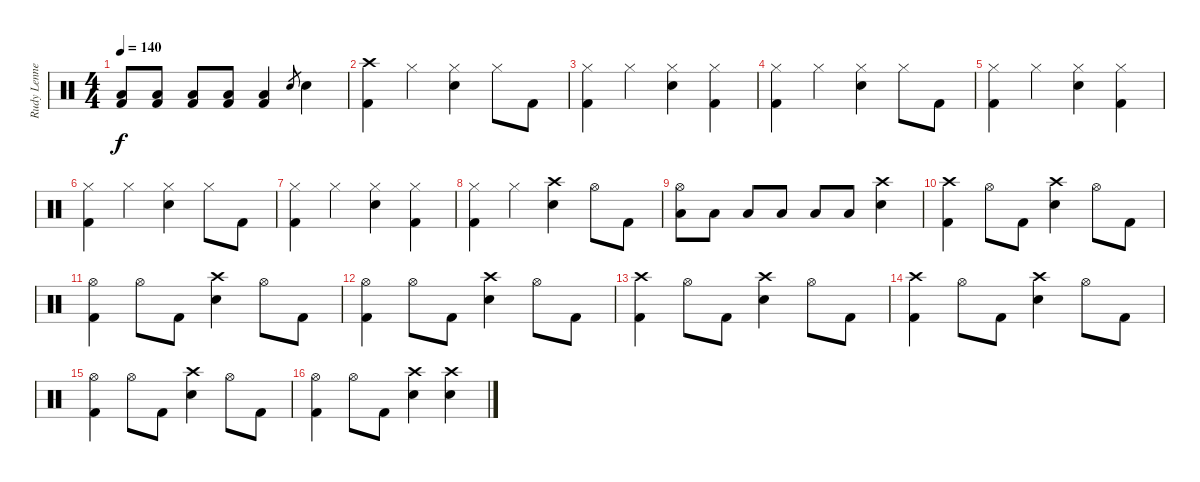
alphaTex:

\track ("Rudy Lenners" "Rudy Lenne") {instrument percussion}
\staff {score}
\articulation defaults
\ts (4 4)
\tempo 140
\clef neutral
\ks c
("Low Tom (hit)" "Kick (hit) 2").8{dy f} ("Low Tom (hit)" "Kick (hit) 2").8 ("Low Tom (hit)" "Kick (hit) 2").8 ("Low Tom (hit)" "Kick (hit) 2").8 ("Low Tom (hit)" "Kick (hit) 2").4 "Snare (hit) 2".8{gr} "Snare (hit) 2".4 |
("Crash high (hit)" "Kick (hit) 2").4 "Hi-Hat (closed)".4 ("Hi-Hat (closed)" "Snare (hit) 2").4 "Hi-Hat (closed)".8 "Kick (hit) 2".8 |
("Hi-Hat (closed)" "Kick (hit) 2").4 "Hi-Hat (closed)".4 ("Hi-Hat (closed)" "Snare (hit) 2").4 ("Hi-Hat (closed)" "Kick (hit) 2").4 |
("Hi-Hat (closed)" "Kick (hit) 2").4 "Hi-Hat (closed)".4 ("Hi-Hat (closed)" "Snare (hit) 2").4 "Hi-Hat (closed)".8 "Kick (hit) 2".8 |
("Hi-Hat (closed)" "Kick (hit) 2").4 "Hi-Hat (closed)".4 ("Hi-Hat (closed)" "Snare (hit) 2").4 ("Hi-Hat (closed)" "Kick (hit) 2").4 |
("Hi-Hat (closed)" "Kick (hit) 2").4 "Hi-Hat (closed)".4 ("Hi-Hat (closed)" "Snare (hit) 2").4 "Hi-Hat (closed)".8 "Kick (hit) 2".8 |
("Hi-Hat (closed)" "Kick (hit) 2").4 "Hi-Hat (closed)".4 ("Hi-Hat (closed)" "Snare (hit) 2").4 ("Hi-Hat (closed)" "Kick (hit) 2").4 |
("Hi-Hat (closed)" "Kick (hit) 2").4 "Hi-Hat (closed)".4 ("Crash high (hit)" "Snare (hit) 2").4 "Hi-Hat (open)".8 "Kick (hit) 2".8 |
("Hi-Hat (open)" "Low Tom (hit)").8 "Low Tom (hit)".8 "Low Tom (hit)".8 "Low Tom (hit)".8 "Low Tom (hit)".8 "Low Tom (hit)".8 ("Crash high (hit)" "Snare (hit) 2").4 |
("Crash high (hit)" "Kick (hit) 2").4 "Hi-Hat (open)".8 "Kick (hit) 2".8 ("Crash high (hit)" "Snare (hit) 2").4 "Hi-Hat (open)".8 "Kick (hit) 2".8 |
("Hi-Hat (open)" "Kick (hit) 2").4 "Hi-Hat (open)".8 "Kick (hit) 2".8 ("Crash high (hit)" "Snare (hit) 2").4 "Hi-Hat (open)".8 "Kick (hit) 2".8 |
("Hi-Hat (open)" "Kick (hit) 2").4 "Hi-Hat (open)".8 "Kick (hit) 2".8 ("Crash high (hit)" "Snare (hit) 2").4 "Hi-Hat (open)".8 "Kick (hit) 2".8 |
("Crash high (hit)" "Kick (hit) 2").4 "Hi-Hat (open)".8 "Kick (hit) 2".8 ("Crash high (hit)" "Snare (hit) 2").4 "Hi-Hat (open)".8 "Kick (hit) 2".8 |
("Crash high (hit)" "Kick (hit) 2").4 "Hi-Hat (open)".8 "Kick (hit) 2".8 ("Crash high (hit)" "Snare (hit) 2").4 "Hi-Hat (open)".8 "Kick (hit) 2".8 |
("Hi-Hat (open)" "Kick (hit) 2").4 "Hi-Hat (open)".8 "Kick (hit) 2".8 ("Crash high (hit)" "Snare (hit) 2").4 "Hi-Hat (open)".8 "Kick (hit) 2".8 |
("Hi-Hat (open)" "Kick (hit) 2").4 "Hi-Hat (open)".8 "Kick (hit) 2".8 ("Crash high (hit)" "Snare (hit) 2").4 ("Crash high (hit)" "Snare (hit) 2").4
